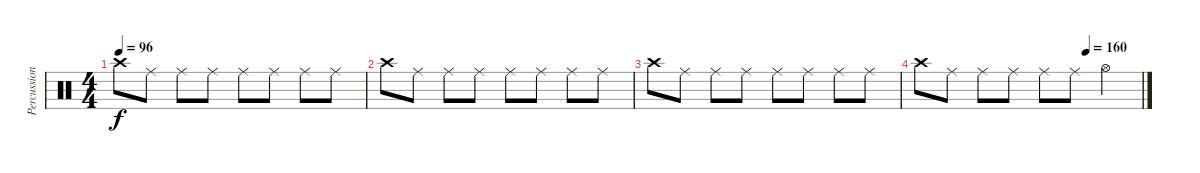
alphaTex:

\track ("Percussion" "Percussion") {instrument percussion}
\staff {score}
\articulation defaults
\ts (4 4)
\tempo 96
\clef neutral
\ks c "Crash high (hit)".8{dy f} "Ride (middle)".8 "Ride (middle)".8 "Ride (middle)".8 "Ride (middle)".8 "Ride (middle)".8 "Ride (middle)".8 "Ride (middle)".8
|
"Crash high (hit)".8 "Ride (middle)".8 "Ride (middle)".8 "Ride (middle)".8 "Ride (middle)".8 "Ride (middle)".8 "Ride (middle)".8 "Ride (middle)".8 |
"Crash high (hit)".8 "Ride (middle)".8 "Ride (middle)".8 "Ride (middle)".8 "Ride (middle)".8 "Ride (middle)".8 "Ride (middle)".8 "Ride (middle)".8 |
\tempo (160 0.75)
"Crash high (hit)".8 "Ride (middle)".8 "Ride (middle)".8 "Ride (middle)".8 "Ride (middle)".8 "Ride (middle)".8 "Hi-Hat (open)".4
